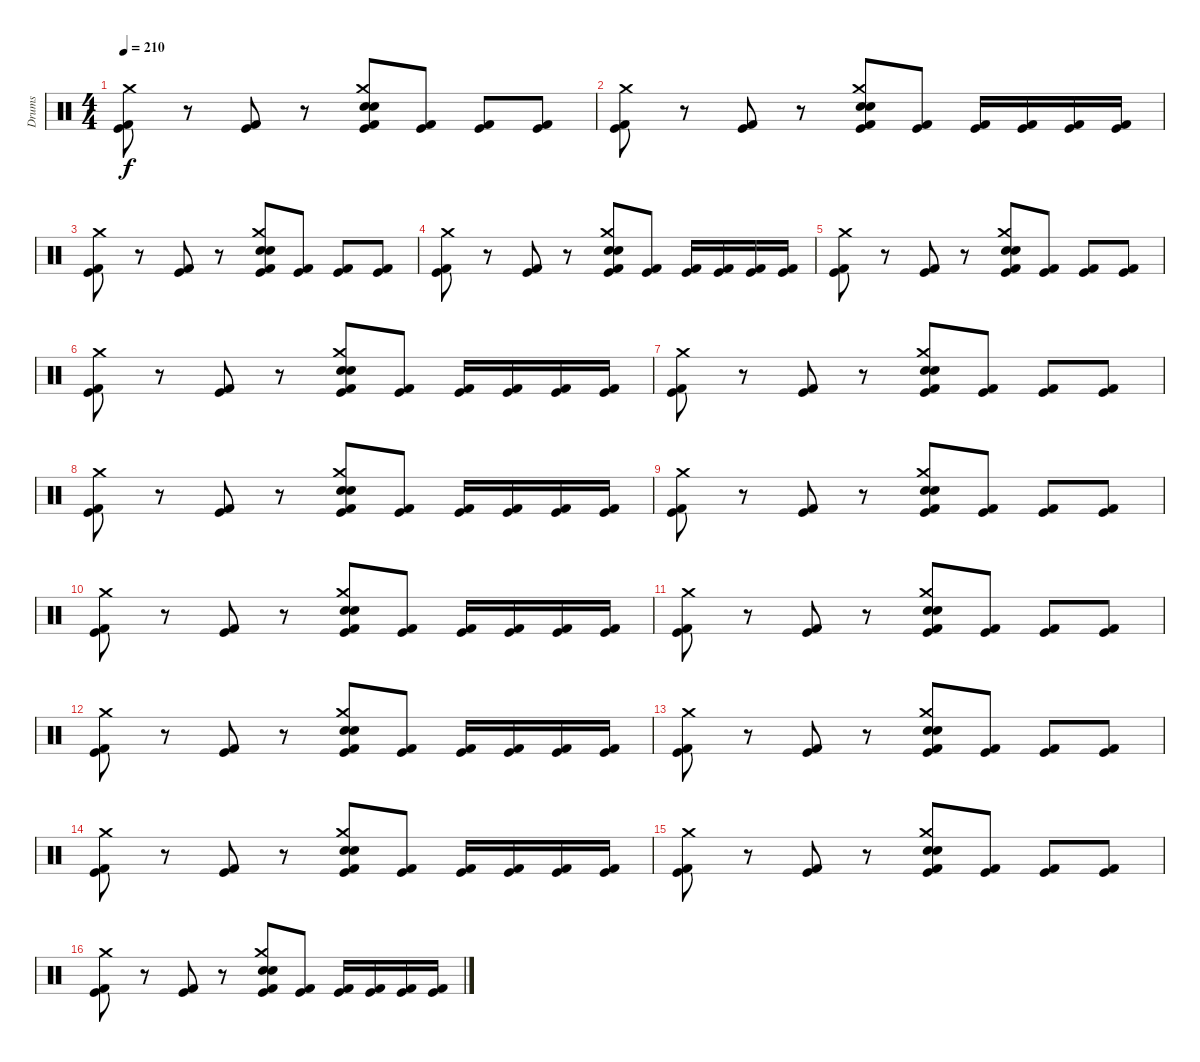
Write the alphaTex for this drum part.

\track ("Drums" "Drums") {instrument percussion}
\staff {score}
\articulation defaults
\ts (4 4)
\tempo 210
\clef neutral
\ks c
("Kick (hit)" "Kick (hit) 2" "Crash medium (hit)").8{dy f} r.8 ("Kick (hit)" "Kick (hit) 2").8 r.8 ("Kick (hit)" "Kick (hit) 2" "Crash medium (hit)" "Snare (hit) 2" "Electric Snare (hit)").8 ("Kick (hit)" "Kick (hit) 2").8 ("Kick (hit)" "Kick (hit) 2").8 ("Kick (hit)" "Kick (hit) 2").8 |
("Kick (hit)" "Kick (hit) 2" "Crash medium (hit)").8 r.8 ("Kick (hit)" "Kick (hit) 2").8 r.8 ("Kick (hit)" "Kick (hit) 2" "Crash medium (hit)" "Snare (hit) 2" "Electric Snare (hit)").8 ("Kick (hit)" "Kick (hit) 2").8 ("Kick (hit)" "Kick (hit) 2").16 ("Kick (hit)" "Kick (hit) 2").16 ("Kick (hit)" "Kick (hit) 2").16 ("Kick (hit)" "Kick (hit) 2").16 |
("Kick (hit)" "Kick (hit) 2" "Crash medium (hit)").8 r.8 ("Kick (hit)" "Kick (hit) 2").8 r.8 ("Kick (hit)" "Kick (hit) 2" "Crash medium (hit)" "Snare (hit) 2" "Electric Snare (hit)").8 ("Kick (hit)" "Kick (hit) 2").8 ("Kick (hit)" "Kick (hit) 2").8 ("Kick (hit)" "Kick (hit) 2").8 |
("Kick (hit)" "Kick (hit) 2" "Crash medium (hit)").8 r.8 ("Kick (hit)" "Kick (hit) 2").8 r.8 ("Kick (hit)" "Kick (hit) 2" "Crash medium (hit)" "Snare (hit) 2" "Electric Snare (hit)").8 ("Kick (hit)" "Kick (hit) 2").8 ("Kick (hit)" "Kick (hit) 2").16 ("Kick (hit)" "Kick (hit) 2").16 ("Kick (hit)" "Kick (hit) 2").16 ("Kick (hit)" "Kick (hit) 2").16 |
("Kick (hit)" "Kick (hit) 2" "Crash medium (hit)").8 r.8 ("Kick (hit)" "Kick (hit) 2").8 r.8 ("Kick (hit)" "Kick (hit) 2" "Crash medium (hit)" "Snare (hit) 2" "Electric Snare (hit)").8 ("Kick (hit)" "Kick (hit) 2").8 ("Kick (hit)" "Kick (hit) 2").8 ("Kick (hit)" "Kick (hit) 2").8 |
("Kick (hit)" "Kick (hit) 2" "Crash medium (hit)").8 r.8 ("Kick (hit)" "Kick (hit) 2").8 r.8 ("Kick (hit)" "Kick (hit) 2" "Crash medium (hit)" "Snare (hit) 2" "Electric Snare (hit)").8 ("Kick (hit)" "Kick (hit) 2").8 ("Kick (hit)" "Kick (hit) 2").16 ("Kick (hit)" "Kick (hit) 2").16 ("Kick (hit)" "Kick (hit) 2").16 ("Kick (hit)" "Kick (hit) 2").16 |
("Kick (hit)" "Kick (hit) 2" "Crash medium (hit)").8 r.8 ("Kick (hit)" "Kick (hit) 2").8 r.8 ("Kick (hit)" "Kick (hit) 2" "Crash medium (hit)" "Snare (hit) 2" "Electric Snare (hit)").8 ("Kick (hit)" "Kick (hit) 2").8 ("Kick (hit)" "Kick (hit) 2").8 ("Kick (hit)" "Kick (hit) 2").8 |
("Kick (hit)" "Kick (hit) 2" "Crash medium (hit)").8 r.8 ("Kick (hit)" "Kick (hit) 2").8 r.8 ("Kick (hit)" "Kick (hit) 2" "Crash medium (hit)" "Snare (hit) 2" "Electric Snare (hit)").8 ("Kick (hit)" "Kick (hit) 2").8 ("Kick (hit)" "Kick (hit) 2").16 ("Kick (hit)" "Kick (hit) 2").16 ("Kick (hit)" "Kick (hit) 2").16 ("Kick (hit)" "Kick (hit) 2").16 |
("Kick (hit)" "Kick (hit) 2" "Crash medium (hit)").8 r.8 ("Kick (hit)" "Kick (hit) 2").8 r.8 ("Kick (hit)" "Kick (hit) 2" "Crash medium (hit)" "Snare (hit) 2" "Electric Snare (hit)").8 ("Kick (hit)" "Kick (hit) 2").8 ("Kick (hit)" "Kick (hit) 2").8 ("Kick (hit)" "Kick (hit) 2").8 |
("Kick (hit)" "Kick (hit) 2" "Crash medium (hit)").8 r.8 ("Kick (hit)" "Kick (hit) 2").8 r.8 ("Kick (hit)" "Kick (hit) 2" "Crash medium (hit)" "Snare (hit) 2" "Electric Snare (hit)").8 ("Kick (hit)" "Kick (hit) 2").8 ("Kick (hit)" "Kick (hit) 2").16 ("Kick (hit)" "Kick (hit) 2").16 ("Kick (hit)" "Kick (hit) 2").16 ("Kick (hit)" "Kick (hit) 2").16 |
("Kick (hit)" "Kick (hit) 2" "Crash medium (hit)").8 r.8 ("Kick (hit)" "Kick (hit) 2").8 r.8 ("Kick (hit)" "Kick (hit) 2" "Crash medium (hit)" "Snare (hit) 2" "Electric Snare (hit)").8 ("Kick (hit)" "Kick (hit) 2").8 ("Kick (hit)" "Kick (hit) 2").8 ("Kick (hit)" "Kick (hit) 2").8 |
("Kick (hit)" "Kick (hit) 2" "Crash medium (hit)").8 r.8 ("Kick (hit)" "Kick (hit) 2").8 r.8 ("Kick (hit)" "Kick (hit) 2" "Crash medium (hit)" "Snare (hit) 2" "Electric Snare (hit)").8 ("Kick (hit)" "Kick (hit) 2").8 ("Kick (hit)" "Kick (hit) 2").16 ("Kick (hit)" "Kick (hit) 2").16 ("Kick (hit)" "Kick (hit) 2").16 ("Kick (hit)" "Kick (hit) 2").16 |
("Kick (hit)" "Kick (hit) 2" "Crash medium (hit)").8 r.8 ("Kick (hit)" "Kick (hit) 2").8 r.8 ("Kick (hit)" "Kick (hit) 2" "Crash medium (hit)" "Snare (hit) 2" "Electric Snare (hit)").8 ("Kick (hit)" "Kick (hit) 2").8 ("Kick (hit)" "Kick (hit) 2").8 ("Kick (hit)" "Kick (hit) 2").8 |
("Kick (hit)" "Kick (hit) 2" "Crash medium (hit)").8 r.8 ("Kick (hit)" "Kick (hit) 2").8 r.8 ("Kick (hit)" "Kick (hit) 2" "Crash medium (hit)" "Snare (hit) 2" "Electric Snare (hit)").8 ("Kick (hit)" "Kick (hit) 2").8 ("Kick (hit)" "Kick (hit) 2").16 ("Kick (hit)" "Kick (hit) 2").16 ("Kick (hit)" "Kick (hit) 2").16 ("Kick (hit)" "Kick (hit) 2").16 |
("Kick (hit)" "Kick (hit) 2" "Crash medium (hit)").8 r.8 ("Kick (hit)" "Kick (hit) 2").8 r.8 ("Kick (hit)" "Kick (hit) 2" "Crash medium (hit)" "Snare (hit) 2" "Electric Snare (hit)").8 ("Kick (hit)" "Kick (hit) 2").8 ("Kick (hit)" "Kick (hit) 2").8 ("Kick (hit)" "Kick (hit) 2").8 |
("Kick (hit)" "Kick (hit) 2" "Crash medium (hit)").8 r.8 ("Kick (hit)" "Kick (hit) 2").8 r.8 ("Kick (hit)" "Kick (hit) 2" "Crash medium (hit)" "Snare (hit) 2" "Electric Snare (hit)").8 ("Kick (hit)" "Kick (hit) 2").8 ("Kick (hit)" "Kick (hit) 2").16 ("Kick (hit)" "Kick (hit) 2").16 ("Kick (hit)" "Kick (hit) 2").16 ("Kick (hit)" "Kick (hit) 2").16
